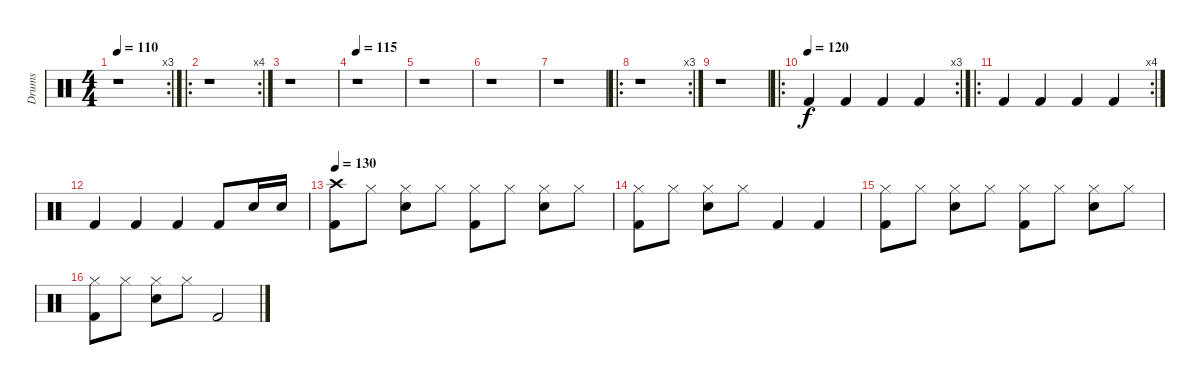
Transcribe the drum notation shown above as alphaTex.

\track ("Drums" "Drums") {instrument percussion}
\staff {score}
\articulation defaults
\rc 3
\ts (4 4)
\tempo 110
\clef neutral
\ks c
r.1{dy f} |
\ro
\rc 4
r.1 |
r.1 |
\tempo 115
r.1 |
r.1 |
r.1 |
r.1 |
\ro
\rc 3
r.1 |
r.1 |
\ro
\rc 3
\tempo (120)
"Kick (hit) 2".4 "Kick (hit) 2".4 "Kick (hit) 2".4 "Kick (hit) 2".4 |
\ro
\rc 4 "Kick (hit) 2".4 "Kick (hit) 2".4 "Kick (hit) 2".4 "Kick (hit) 2".4
|
"Kick (hit) 2".4 "Kick (hit) 2".4 "Kick (hit) 2".4 "Kick (hit) 2".8 "Snare (hit) 2".16 "Snare (hit) 2".16 |
\tempo 130
("Crash high (hit)" "Kick (hit) 2").8 "Hi-Hat (closed)".8 ("Hi-Hat (closed)" "Snare (hit) 2").8 "Hi-Hat (closed)".8 ("Hi-Hat (closed)" "Kick (hit) 2").8 "Hi-Hat (closed)".8 ("Hi-Hat (closed)" "Snare (hit) 2").8 "Hi-Hat (closed)".8 |
("Hi-Hat (closed)" "Kick (hit) 2").8 "Hi-Hat (closed)".8 ("Hi-Hat (closed)" "Snare (hit) 2").8 "Hi-Hat (closed)".8 "Kick (hit) 2".4 "Kick (hit) 2".4 |
("Hi-Hat (closed)" "Kick (hit) 2").8 "Hi-Hat (closed)".8 ("Hi-Hat (closed)" "Snare (hit) 2").8 "Hi-Hat (closed)".8 ("Hi-Hat (closed)" "Kick (hit) 2").8 "Hi-Hat (closed)".8 ("Hi-Hat (closed)" "Snare (hit) 2").8 "Hi-Hat (closed)".8 |
("Hi-Hat (closed)" "Kick (hit) 2").8 "Hi-Hat (closed)".8 ("Hi-Hat (closed)" "Snare (hit) 2").8 "Hi-Hat (closed)".8 "Kick (hit) 2".2
